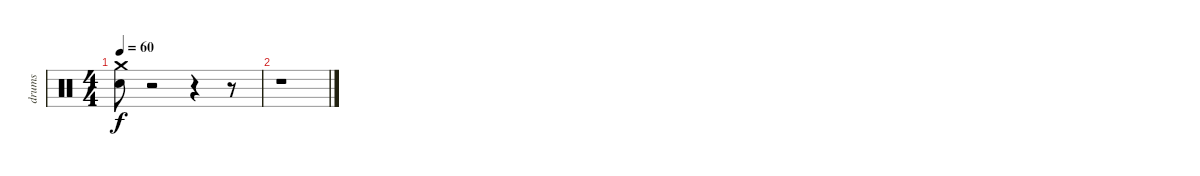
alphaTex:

\track ("drums" "drums") {instrument percussion}
\staff {score}
\articulation defaults
\ts (4 4)
\tempo 60
\clef neutral
\ks c
("Snare (hit)" "Crash medium (hit)").8{dy f} r.2 r.4 r.8 |
r.1
